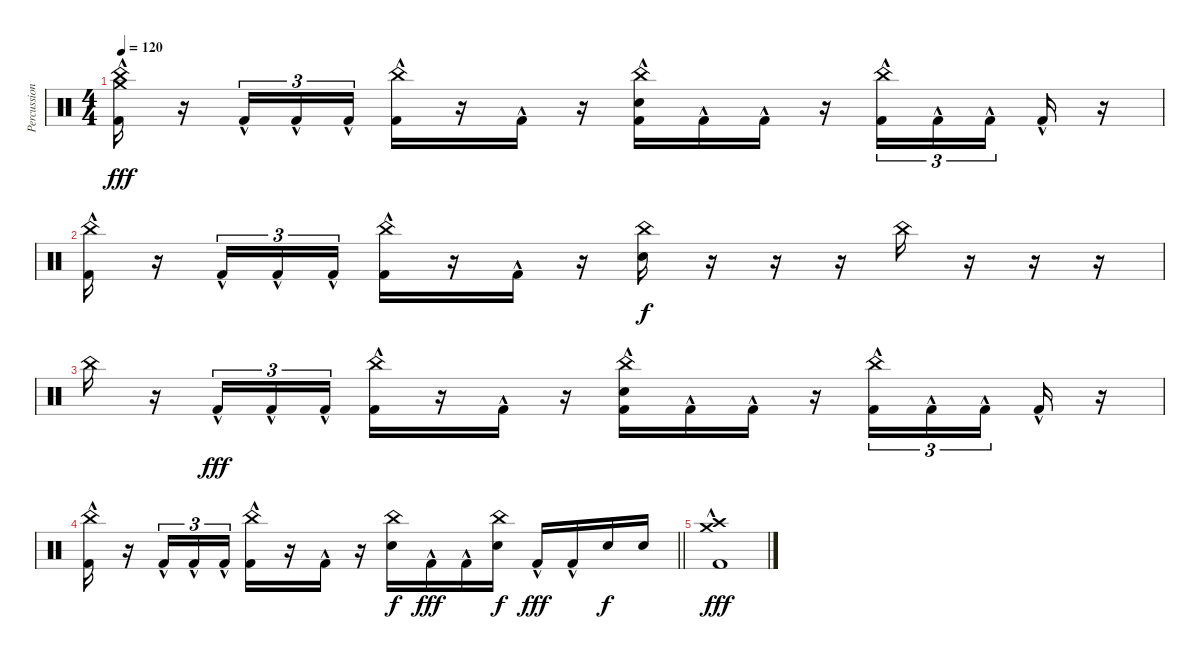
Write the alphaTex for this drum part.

\track ("Percussion" "Percussion") {instrument percussion}
\staff {score}
\articulation defaults
\ts (4 4)
\tempo 120
\clef neutral
\ks c
("China (hit)" "Crash medium (hit)" "Kick (hit) 2"{hac}).16{dy fff} r.16 "Kick (hit) 2"{hac}.16{tu (3 2)} "Kick (hit) 2"{hac}.16{tu (3 2)} "Kick (hit) 2"{hac}.16{tu (3 2)} ("China (hit)" "Kick (hit) 2"{hac}).16 r.16 "Kick (hit) 2"{hac}.16 r.16 ("China (hit)" "Snare (hit) 2" "Kick (hit) 2"{hac}).16 "Kick (hit) 2"{hac}.16 "Kick (hit) 2"{hac}.16 r.16 ("China (hit)" "Kick (hit) 2"{hac}).16{tu (3 2)} "Kick (hit) 2"{hac}.16{tu (3 2)} "Kick (hit) 2"{hac}.16{tu (3 2) beam splitsecondary} "Kick (hit) 2"{hac}.16 r.16 |
("China (hit)" "Kick (hit) 2"{hac}).16 r.16 "Kick (hit) 2"{hac}.16{tu (3 2)} "Kick (hit) 2"{hac}.16{tu (3 2)} "Kick (hit) 2"{hac}.16{tu (3 2)} ("China (hit)" "Kick (hit) 2"{hac}).16 r.16 "Kick (hit) 2"{hac}.16 r.16 ("China (hit)" "Snare (hit) 2").16{dy f} r.16 r.16 r.16 "China (hit)".16 r.16 r.16 r.16 |
"China (hit)".16 r.16 "Kick (hit) 2"{hac}.16{tu (3 2) dy fff} "Kick (hit) 2"{hac}.16{tu (3 2)} "Kick (hit) 2"{hac}.16{tu (3 2)} ("China (hit)" "Kick (hit) 2"{hac}).16 r.16 "Kick (hit) 2"{hac}.16 r.16 ("China (hit)" "Snare (hit) 2" "Kick (hit) 2"{hac}).16 "Kick (hit) 2"{hac}.16 "Kick (hit) 2"{hac}.16 r.16 ("China (hit)" "Kick (hit) 2"{hac}).16{tu (3 2)} "Kick (hit) 2"{hac}.16{tu (3 2)} "Kick (hit) 2"{hac}.16{tu (3 2) beam splitsecondary} "Kick (hit) 2"{hac}.16 r.16 |
\barLineRight lightlight
("China (hit)" "Kick (hit) 2"{hac}).16 r.16 "Kick (hit) 2"{hac}.16{tu (3 2)} "Kick (hit) 2"{hac}.16{tu (3 2)} "Kick (hit) 2"{hac}.16{tu (3 2)} ("China (hit)" "Kick (hit) 2"{hac}).16 r.16 "Kick (hit) 2"{hac}.16 r.16 ("China (hit)" "Snare (hit) 2").16{dy f} "Kick (hit) 2"{hac}.16{dy fff} "Kick (hit) 2"{hac}.16 ("China (hit)" "Snare (hit) 2").16{dy f} "Kick (hit) 2"{hac}.16{dy fff} "Kick (hit) 2"{hac}.16 "Snare (hit) 2".16{dy f} "Snare (hit) 2".16 |
("Crash high (hit)" "Crash medium (hit)" "Kick (hit) 2"{hac}).1{dy fff}
